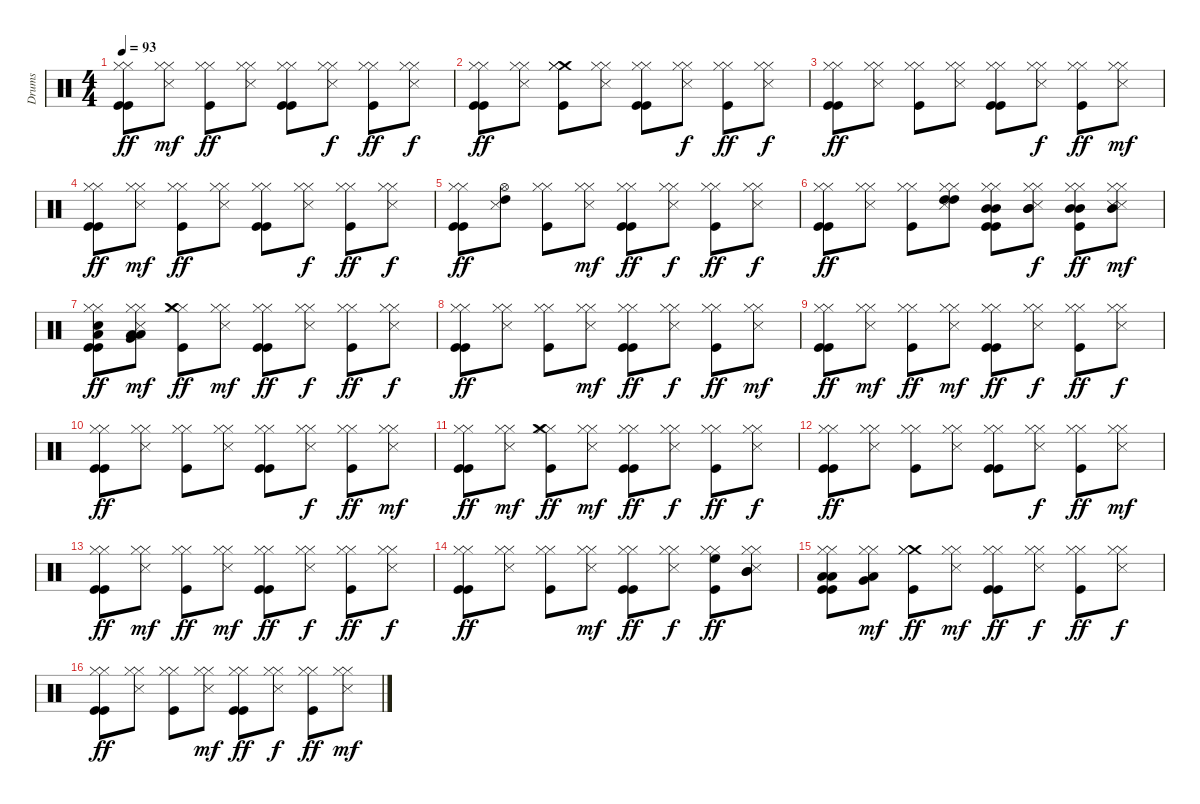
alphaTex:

\track ("Drums" "Drums") {instrument percussion}
\staff {score}
\articulation defaults
\ts (4 4)
\tempo 93
\clef neutral
\ks c
("Kick (hit)" "Hi-Hat (closed)" "Kick (hit)" "Hi-Hat (closed)").8{dy ff} ("Snare (side stick) 3" "Hi-Hat (closed)" "Hi-Hat (closed)").8{dy mf} ("Hi-Hat (closed)" "Kick (hit)" "Hi-Hat (closed)").8{dy ff} ("Snare (side stick) 3" "Hi-Hat (closed)" "Hi-Hat (closed)").8 ("Kick (hit)" "Hi-Hat (closed)" "Kick (hit)" "Hi-Hat (closed)").8 ("Hi-Hat (closed)" "Snare (side stick) 3" "Hi-Hat (closed)").8{dy f} ("Hi-Hat (closed)" "Kick (hit)" "Hi-Hat (closed)").8{dy ff} ("Snare (side stick) 3" "Hi-Hat (closed)" "Hi-Hat (closed)").8{dy f} |
("Kick (hit)" "Hi-Hat (closed)" "Kick (hit)" "Hi-Hat (closed)").8{dy ff} ("Hi-Hat (closed)" "Snare (side stick) 3" "Hi-Hat (closed)").8 ("Crash medium (hit)" "Hi-Hat (closed)" "Kick (hit)" "Hi-Hat (closed)").8 ("Snare (side stick) 3" "Hi-Hat (closed)" "Hi-Hat (closed)").8 ("Kick (hit)" "Hi-Hat (closed)" "Kick (hit)" "Hi-Hat (closed)").8 ("Snare (side stick) 3" "Hi-Hat (closed)" "Hi-Hat (closed)").8{dy f} ("Hi-Hat (closed)" "Kick (hit)" "Hi-Hat (closed)").8{dy ff} ("Snare (side stick) 3" "Hi-Hat (closed)" "Hi-Hat (closed)").8{dy f} |
("Kick (hit)" "Hi-Hat (closed)" "Kick (hit)" "Hi-Hat (closed)").8{dy ff} ("Snare (side stick) 3" "Hi-Hat (closed)" "Hi-Hat (closed)").8 ("Hi-Hat (closed)" "Kick (hit)" "Hi-Hat (closed)").8 ("Snare (side stick) 3" "Hi-Hat (closed)" "Hi-Hat (closed)").8 ("Kick (hit)" "Hi-Hat (closed)" "Kick (hit)" "Hi-Hat (closed)").8 ("Snare (side stick) 3" "Hi-Hat (closed)" "Hi-Hat (closed)").8{dy f} ("Hi-Hat (closed)" "Kick (hit)" "Hi-Hat (closed)").8{dy ff} ("Snare (side stick) 3" "Hi-Hat (closed)" "Hi-Hat (closed)").8{dy mf} |
("Kick (hit)" "Hi-Hat (closed)" "Kick (hit)" "Hi-Hat (closed)").8{dy ff} ("Snare (side stick) 3" "Hi-Hat (closed)" "Hi-Hat (closed)").8{dy mf} ("Hi-Hat (closed)" "Kick (hit)" "Hi-Hat (closed)").8{dy ff} ("Snare (side stick) 3" "Hi-Hat (closed)" "Hi-Hat (closed)").8 ("Kick (hit)" "Hi-Hat (closed)" "Kick (hit)" "Hi-Hat (closed)").8 ("Snare (side stick) 3" "Hi-Hat (closed)" "Hi-Hat (closed)").8{dy f} ("Hi-Hat (closed)" "Kick (hit)" "Hi-Hat (closed)").8{dy ff} ("Hi-Hat (closed)" "Snare (side stick) 3" "Hi-Hat (closed)").8{dy f} |
("Kick (hit)" "Hi-Hat (closed)" "Kick (hit)" "Hi-Hat (closed)").8{dy ff} ("High Tom (hit)" "Hi-Hat (open)" "Snare (side stick) 3").8 ("Hi-Hat (closed)" "Kick (hit)" "Hi-Hat (closed)").8 ("Hi-Hat (closed)" "Snare (side stick) 3" "Hi-Hat (closed)").8{dy mf} ("Kick (hit)" "Hi-Hat (closed)" "Kick (hit)" "Hi-Hat (closed)").8{dy ff} ("Hi-Hat (closed)" "Snare (side stick) 3" "Hi-Hat (closed)").8{dy f} ("Hi-Hat (closed)" "Kick (hit)" "Hi-Hat (closed)").8{dy ff} ("Hi-Hat (closed)" "Snare (side stick) 3" "Hi-Hat (closed)").8{dy f} |
("Kick (hit)" "Hi-Hat (closed)" "Kick (hit)" "Hi-Hat (closed)").8{dy ff} ("Hi-Hat (closed)" "Snare (side stick) 3" "Hi-Hat (closed)").8 ("Hi-Hat (closed)" "Kick (hit)" "Hi-Hat (closed)").8 ("Snare (side stick) 3" "High Tom (hit)" "Hi-Hat (closed)" "High Tom (hit)" "Hi-Hat (closed)").8 ("Kick (hit)" "Hi-Hat (closed)" "Mid Tom (hit)" "Kick (hit)" "Mid Tom (hit)" "Hi-Hat (closed)").8 ("Mid Tom (hit)" "Snare (side stick) 3" "Hi-Hat (closed)" "Mid Tom (hit)" "Hi-Hat (closed)").8{dy f} ("Hi-Hat (closed)" "Mid Tom (hit)" "Kick (hit)" "Hi-Hat (closed)" "Mid Tom (hit)").8{dy ff} ("Hi-Hat (closed)" "Snare (side stick) 3" "Hi-Hat (closed)" "Snare (side stick) 3" "Mid Tom (hit)").8{dy mf} |
("Kick (hit)" "Hi-Hat (closed)" "Low Tom (hit)" "Kick (hit)" "Hi-Hat (closed)" "Snare (hit) 2").8{dy ff} ("Snare (side stick) 3" "Low Tom (hit)" "Very Low Tom (hit)" "Hi-Hat (closed)" "Low Floor Tom (hit)" "Hi-Hat (closed)").8{dy mf} ("Hi-Hat (closed)" "Crash medium (hit)" "Kick (hit)" "Hi-Hat (closed)").8{dy ff} ("Hi-Hat (closed)" "Snare (side stick) 3" "Hi-Hat (closed)").8{dy mf} ("Kick (hit)" "Hi-Hat (closed)" "Kick (hit)" "Hi-Hat (closed)").8{dy ff} ("Hi-Hat (closed)" "Snare (side stick) 3" "Hi-Hat (closed)").8{dy f} ("Hi-Hat (closed)" "Kick (hit)" "Hi-Hat (closed)").8{dy ff} ("Hi-Hat (closed)" "Snare (side stick) 3" "Hi-Hat (closed)").8{dy f} |
("Kick (hit)" "Hi-Hat (closed)" "Kick (hit)" "Hi-Hat (closed)").8{dy ff} ("Snare (side stick) 3" "Hi-Hat (closed)" "Hi-Hat (closed)").8 ("Hi-Hat (closed)" "Kick (hit)" "Hi-Hat (closed)").8 ("Hi-Hat (closed)" "Snare (side stick) 3" "Hi-Hat (closed)").8{dy mf} ("Kick (hit)" "Hi-Hat (closed)" "Kick (hit)" "Hi-Hat (closed)").8{dy ff} ("Snare (side stick) 3" "Hi-Hat (closed)" "Hi-Hat (closed)").8{dy f} ("Hi-Hat (closed)" "Kick (hit)" "Hi-Hat (closed)").8{dy ff} ("Hi-Hat (closed)" "Snare (side stick) 3" "Hi-Hat (closed)").8{dy mf} |
("Kick (hit)" "Hi-Hat (closed)" "Kick (hit)" "Hi-Hat (closed)").8{dy ff} ("Hi-Hat (closed)" "Snare (side stick) 3" "Hi-Hat (closed)").8{dy mf} ("Hi-Hat (closed)" "Kick (hit)" "Hi-Hat (closed)").8{dy ff} ("Hi-Hat (closed)" "Snare (side stick) 3" "Hi-Hat (closed)").8{dy mf} ("Kick (hit)" "Hi-Hat (closed)" "Kick (hit)" "Hi-Hat (closed)").8{dy ff} ("Hi-Hat (closed)" "Snare (side stick) 3" "Hi-Hat (closed)").8{dy f} ("Hi-Hat (closed)" "Kick (hit)" "Hi-Hat (closed)").8{dy ff} ("Snare (side stick) 3" "Hi-Hat (closed)" "Hi-Hat (closed)").8{dy f} |
("Kick (hit)" "Hi-Hat (closed)" "Kick (hit)" "Hi-Hat (closed)").8{dy ff} ("Hi-Hat (closed)" "Snare (side stick) 3" "Hi-Hat (closed)").8 ("Hi-Hat (closed)" "Kick (hit)" "Hi-Hat (closed)").8 ("Snare (side stick) 3" "Hi-Hat (closed)" "Hi-Hat (closed)").8 ("Kick (hit)" "Hi-Hat (closed)" "Kick (hit)" "Hi-Hat (closed)").8 ("Snare (side stick) 3" "Hi-Hat (closed)" "Hi-Hat (closed)").8{dy f} ("Hi-Hat (closed)" "Kick (hit)" "Hi-Hat (closed)").8{dy ff} ("Snare (side stick) 3" "Hi-Hat (closed)" "Hi-Hat (closed)").8{dy mf} |
("Kick (hit)" "Hi-Hat (closed)" "Kick (hit)" "Hi-Hat (closed)").8{dy ff} ("Hi-Hat (closed)" "Snare (side stick) 3" "Hi-Hat (closed)").8{dy mf} ("Hi-Hat (closed)" "Crash medium (hit)" "Kick (hit)" "Hi-Hat (closed)").8{dy ff} ("Hi-Hat (closed)" "Snare (side stick) 3" "Hi-Hat (closed)").8{dy mf} ("Kick (hit)" "Hi-Hat (closed)" "Kick (hit)" "Hi-Hat (closed)").8{dy ff} ("Hi-Hat (closed)" "Snare (side stick) 3" "Hi-Hat (closed)").8{dy f} ("Hi-Hat (closed)" "Kick (hit)" "Hi-Hat (closed)").8{dy ff} ("Hi-Hat (closed)" "Snare (side stick) 3" "Hi-Hat (closed)").8{dy f} |
("Kick (hit)" "Hi-Hat (closed)" "Kick (hit)" "Hi-Hat (closed)").8{dy ff} ("Snare (side stick) 3" "Hi-Hat (closed)" "Hi-Hat (closed)").8 ("Hi-Hat (closed)" "Kick (hit)" "Hi-Hat (closed)").8 ("Snare (side stick) 3" "Hi-Hat (closed)" "Hi-Hat (closed)").8 ("Kick (hit)" "Hi-Hat (closed)" "Kick (hit)" "Hi-Hat (closed)").8 ("Hi-Hat (closed)" "Snare (side stick) 3" "Hi-Hat (closed)").8{dy f} ("Hi-Hat (closed)" "Kick (hit)" "Hi-Hat (closed)").8{dy ff} ("Hi-Hat (closed)" "Snare (side stick) 3" "Hi-Hat (closed)").8{dy mf} |
("Kick (hit)" "Hi-Hat (closed)" "Kick (hit)" "Hi-Hat (closed)").8{dy ff} ("Hi-Hat (closed)" "Snare (side stick) 3" "Hi-Hat (closed)").8{dy mf} ("Hi-Hat (closed)" "Kick (hit)" "Hi-Hat (closed)").8{dy ff} ("Hi-Hat (closed)" "Snare (side stick) 3" "Hi-Hat (closed)").8{dy mf} ("Kick (hit)" "Hi-Hat (closed)" "Kick (hit)" "Hi-Hat (closed)").8{dy ff} ("Hi-Hat (closed)" "Snare (side stick) 3" "Hi-Hat (closed)").8{dy f} ("Hi-Hat (closed)" "Kick (hit)" "Hi-Hat (closed)").8{dy ff} ("Snare (side stick) 3" "Hi-Hat (closed)" "Hi-Hat (closed)").8{dy f} |
("Kick (hit)" "Hi-Hat (closed)" "Kick (hit)" "Hi-Hat (closed)").8{dy ff} ("Snare (side stick) 3" "Hi-Hat (closed)" "Hi-Hat (closed)").8 ("Hi-Hat (closed)" "Kick (hit)" "Hi-Hat (closed)").8 ("Hi-Hat (closed)" "Snare (side stick) 3" "Hi-Hat (closed)").8{dy mf} ("Kick (hit)" "Hi-Hat (closed)" "Kick (hit)" "Hi-Hat (closed)").8{dy ff} ("Snare (side stick) 3" "Hi-Hat (closed)" "Hi-Hat (closed)").8{dy f} ("Hi-Hat (closed)" "Kick (hit)" "Hi-Hat (closed)" "High Floor Tom (hit)").8{dy ff} ("Mid Tom (hit)" "Hi-Hat (closed)" "Snare (side stick) 3" "Hi-Hat (closed)" "Mid Tom (hit)").8 |
("Kick (hit)" "Hi-Hat (closed)" "Low Tom (hit)" "Kick (hit)" "Low Tom (hit)" "Hi-Hat (closed)").8 ("Very Low Tom (hit)" "Hi-Hat (closed)" "Low Floor Tom (hit)" "Hi-Hat (closed)").8{dy mf} ("Crash medium (hit)" "Hi-Hat (closed)" "Kick (hit)" "Hi-Hat (closed)").8{dy ff} ("Hi-Hat (closed)" "Snare (side stick) 3" "Hi-Hat (closed)").8{dy mf} ("Kick (hit)" "Hi-Hat (closed)" "Kick (hit)" "Hi-Hat (closed)").8{dy ff} ("Hi-Hat (closed)" "Snare (side stick) 3" "Hi-Hat (closed)").8{dy f} ("Hi-Hat (closed)" "Kick (hit)" "Hi-Hat (closed)").8{dy ff} ("Snare (side stick) 3" "Hi-Hat (closed)" "Hi-Hat (closed)").8{dy f} |
("Kick (hit)" "Hi-Hat (closed)" "Kick (hit)" "Hi-Hat (closed)").8{dy ff} ("Hi-Hat (closed)" "Snare (side stick) 3" "Hi-Hat (closed)").8 ("Hi-Hat (closed)" "Kick (hit)" "Hi-Hat (closed)").8 ("Hi-Hat (closed)" "Snare (side stick) 3" "Hi-Hat (closed)").8{dy mf} ("Kick (hit)" "Hi-Hat (closed)" "Kick (hit)" "Hi-Hat (closed)").8{dy ff} ("Hi-Hat (closed)" "Snare (side stick) 3" "Hi-Hat (closed)").8{dy f} ("Hi-Hat (closed)" "Kick (hit)" "Hi-Hat (closed)").8{dy ff} ("Snare (side stick) 3" "Hi-Hat (closed)" "Hi-Hat (closed)").8{dy mf}
